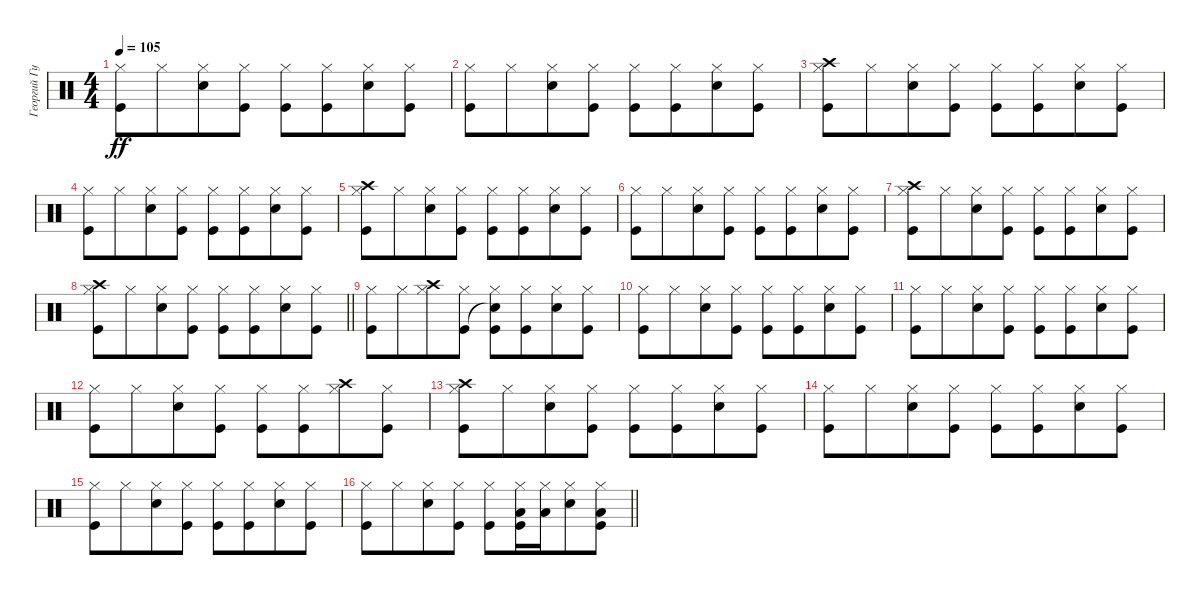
\track ("Георгий Гурьянов" "Георгий Гу") {instrument percussion}
\staff {score}
\articulation defaults
\ts (4 4)
\tempo 105
\clef neutral
\ks c
("Hi-Hat (closed)" "Kick (hit)").8{dy ff} "Hi-Hat (closed)".8{beam merge} ("Hi-Hat (closed)" "Snare (hit) 2").8 ("Hi-Hat (closed)" "Kick (hit)").8 ("Hi-Hat (closed)" "Kick (hit)").8 ("Hi-Hat (closed)" "Kick (hit)").8{beam merge} ("Hi-Hat (closed)" "Snare (hit) 2").8 ("Hi-Hat (closed)" "Kick (hit)").8 |
("Hi-Hat (closed)" "Kick (hit)").8 "Hi-Hat (closed)".8{beam merge} ("Hi-Hat (closed)" "Snare (hit) 2").8 ("Hi-Hat (closed)" "Kick (hit)").8 ("Hi-Hat (closed)" "Kick (hit)").8 ("Hi-Hat (closed)" "Kick (hit)").8{beam merge} ("Hi-Hat (closed)" "Snare (hit) 2").8 ("Hi-Hat (closed)" "Kick (hit)").8 |
("Hi-Hat (closed)" "Crash high (hit)" "Kick (hit)").8 "Hi-Hat (closed)".8{beam merge} ("Hi-Hat (closed)" "Snare (hit) 2").8 ("Hi-Hat (closed)" "Kick (hit)").8 ("Hi-Hat (closed)" "Kick (hit)").8 ("Hi-Hat (closed)" "Kick (hit)").8{beam merge} ("Hi-Hat (closed)" "Snare (hit) 2").8 ("Hi-Hat (closed)" "Kick (hit)").8 |
("Hi-Hat (closed)" "Kick (hit)").8 "Hi-Hat (closed)".8{beam merge} ("Hi-Hat (closed)" "Snare (hit) 2").8 ("Hi-Hat (closed)" "Kick (hit)").8 ("Hi-Hat (closed)" "Kick (hit)").8 ("Hi-Hat (closed)" "Kick (hit)").8{beam merge} ("Hi-Hat (closed)" "Snare (hit) 2").8 ("Hi-Hat (closed)" "Kick (hit)").8 |
("Hi-Hat (closed)" "Crash high (hit)" "Kick (hit)").8 "Hi-Hat (closed)".8{beam merge} ("Hi-Hat (closed)" "Snare (hit) 2").8 ("Hi-Hat (closed)" "Kick (hit)").8 ("Hi-Hat (closed)" "Kick (hit)").8 ("Hi-Hat (closed)" "Kick (hit)").8{beam merge} ("Hi-Hat (closed)" "Snare (hit) 2").8 ("Hi-Hat (closed)" "Kick (hit)").8 |
("Hi-Hat (closed)" "Kick (hit)").8 "Hi-Hat (closed)".8{beam merge} ("Hi-Hat (closed)" "Snare (hit) 2").8 ("Hi-Hat (closed)" "Kick (hit)").8 ("Hi-Hat (closed)" "Kick (hit)").8 ("Hi-Hat (closed)" "Kick (hit)").8{beam merge} ("Hi-Hat (closed)" "Snare (hit) 2").8 ("Hi-Hat (closed)" "Kick (hit)").8 |
("Hi-Hat (closed)" "Crash high (hit)" "Kick (hit)").8 "Hi-Hat (closed)".8{beam merge} ("Hi-Hat (closed)" "Snare (hit) 2").8 ("Hi-Hat (closed)" "Kick (hit)").8 ("Hi-Hat (closed)" "Kick (hit)").8 ("Hi-Hat (closed)" "Kick (hit)").8{beam merge} ("Hi-Hat (closed)" "Snare (hit) 2").8 ("Hi-Hat (closed)" "Kick (hit)").8 |
\barLineRight lightlight
("Hi-Hat (closed)" "Crash high (hit)" "Kick (hit)").8 "Hi-Hat (closed)".8{beam merge} ("Hi-Hat (closed)" "Snare (hit) 2").8 ("Hi-Hat (closed)" "Kick (hit)").8 ("Hi-Hat (closed)" "Kick (hit)").8 ("Hi-Hat (closed)" "Kick (hit)").8{beam merge} ("Hi-Hat (closed)" "Snare (hit) 2").8 ("Hi-Hat (closed)" "Kick (hit)").8 |
("Hi-Hat (closed)" "Kick (hit)").8 "Hi-Hat (closed)".8{beam merge} ("Hi-Hat (closed)" "Crash high (hit)").8 ("Hi-Hat (closed)" "Kick (hit)").8 ("Hi-Hat (closed)" "Snare (hit)"{t} "Kick (hit)").8 ("Hi-Hat (closed)" "Kick (hit)").8{beam merge} ("Hi-Hat (closed)" "Snare (hit) 2").8 ("Hi-Hat (closed)" "Kick (hit)").8 |
("Hi-Hat (closed)" "Kick (hit)").8 "Hi-Hat (closed)".8{beam merge} ("Hi-Hat (closed)" "Snare (hit) 2").8 ("Hi-Hat (closed)" "Kick (hit)").8 ("Hi-Hat (closed)" "Kick (hit)").8 ("Hi-Hat (closed)" "Kick (hit)").8{beam merge} ("Hi-Hat (closed)" "Snare (hit) 2").8 ("Hi-Hat (closed)" "Kick (hit)").8 |
("Hi-Hat (closed)" "Kick (hit)").8 "Hi-Hat (closed)".8{beam merge} ("Hi-Hat (closed)" "Snare (hit) 2").8 ("Hi-Hat (closed)" "Kick (hit)").8 ("Hi-Hat (closed)" "Kick (hit)").8 ("Hi-Hat (closed)" "Kick (hit)").8{beam merge} ("Hi-Hat (closed)" "Snare (hit) 2").8 ("Hi-Hat (closed)" "Kick (hit)").8 |
("Hi-Hat (closed)" "Kick (hit)").8 "Hi-Hat (closed)".8{beam merge} ("Hi-Hat (closed)" "Snare (hit) 2").8 ("Hi-Hat (closed)" "Kick (hit)").8 ("Hi-Hat (closed)" "Kick (hit)").8 ("Hi-Hat (closed)" "Kick (hit)").8{beam merge} ("Hi-Hat (closed)" "Crash high (hit)").8 ("Hi-Hat (closed)" "Kick (hit)").8 |
("Hi-Hat (closed)" "Crash high (hit)" "Kick (hit)").8 "Hi-Hat (closed)".8{beam merge} ("Hi-Hat (closed)" "Snare (hit) 2").8 ("Hi-Hat (closed)" "Kick (hit)").8 ("Hi-Hat (closed)" "Kick (hit)").8 ("Hi-Hat (closed)" "Kick (hit)").8{beam merge} ("Hi-Hat (closed)" "Snare (hit) 2").8 ("Hi-Hat (closed)" "Kick (hit)").8 |
("Hi-Hat (closed)" "Kick (hit)").8 "Hi-Hat (closed)".8{beam merge} ("Hi-Hat (closed)" "Snare (hit) 2").8 ("Hi-Hat (closed)" "Kick (hit)").8 ("Hi-Hat (closed)" "Kick (hit)").8 ("Hi-Hat (closed)" "Kick (hit)").8{beam merge} ("Hi-Hat (closed)" "Snare (hit) 2").8 ("Hi-Hat (closed)" "Kick (hit)").8 |
("Hi-Hat (closed)" "Kick (hit)").8 "Hi-Hat (closed)".8{beam merge} ("Hi-Hat (closed)" "Snare (hit) 2").8 ("Hi-Hat (closed)" "Kick (hit)").8 ("Hi-Hat (closed)" "Kick (hit)").8 ("Hi-Hat (closed)" "Kick (hit)").8{beam merge} ("Hi-Hat (closed)" "Snare (hit) 2").8 ("Hi-Hat (closed)" "Kick (hit)").8 |
\barLineRight lightlight
("Hi-Hat (closed)" "Kick (hit)").8 "Hi-Hat (closed)".8{beam merge} ("Hi-Hat (closed)" "Snare (hit) 2").8 ("Hi-Hat (closed)" "Kick (hit)").8 ("Hi-Hat (closed)" "Kick (hit)").8 ("Hi-Hat (closed)" "Low Tom (hit)" "Kick (hit)").16 ("Hi-Hat (closed)" "Low Tom (hit)").16{beam merge} ("Hi-Hat (closed)" "Snare (hit) 2").8 ("Hi-Hat (closed)" "Low Tom (hit)" "Kick (hit)").8
